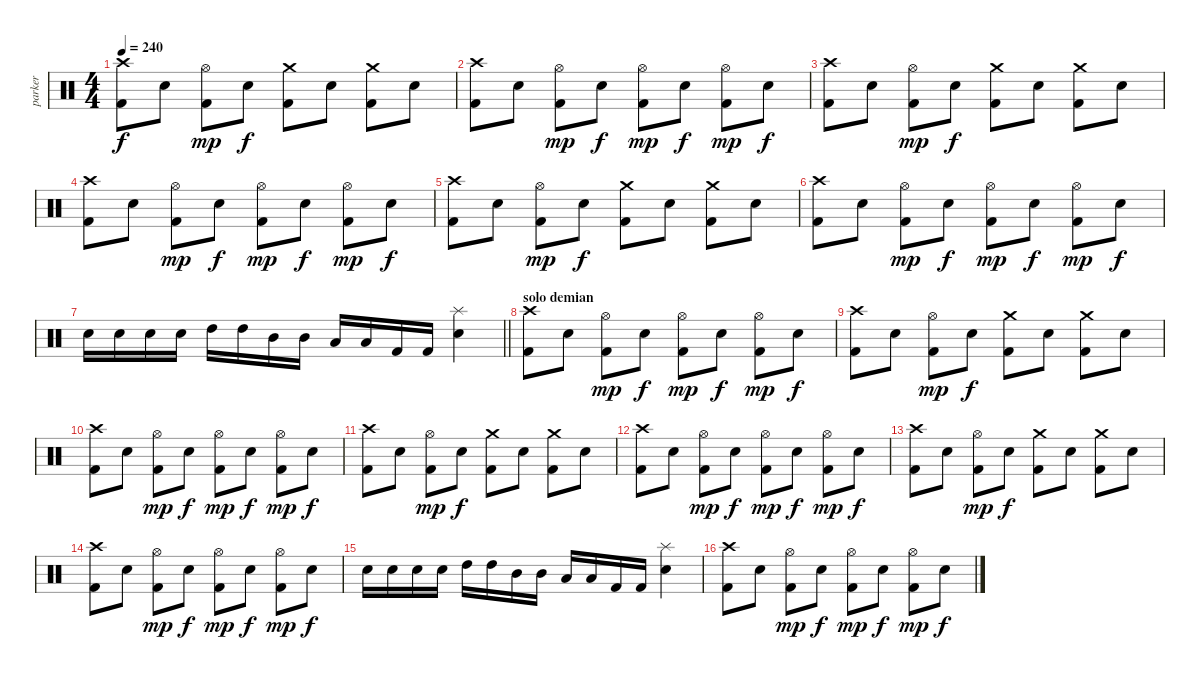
\track ("parker" "parker") {instrument percussion}
\staff {score}
\articulation defaults
\ts (4 4)
\tempo 240
\clef neutral
\ks c
("Crash high (hit)" "Kick (hit) 2").8{dy f} "Electric Snare (hit)".8 ("Hi-Hat (open)" "Kick (hit) 2").8{dy mp} "Electric Snare (hit)".8{dy f} ("Crash medium (hit)" "Kick (hit) 2").8 "Electric Snare (hit)".8 ("Crash medium (hit)" "Kick (hit) 2").8 "Electric Snare (hit)".8 |
("Crash high (hit)" "Kick (hit) 2").8 "Electric Snare (hit)".8 ("Hi-Hat (open)" "Kick (hit) 2").8{dy mp} "Electric Snare (hit)".8{dy f} ("Hi-Hat (open)" "Kick (hit) 2").8{dy mp} "Electric Snare (hit)".8{dy f} ("Hi-Hat (open)" "Kick (hit) 2").8{dy mp} "Electric Snare (hit)".8{dy f} |
("Crash high (hit)" "Kick (hit) 2").8 "Electric Snare (hit)".8 ("Hi-Hat (open)" "Kick (hit) 2").8{dy mp} "Electric Snare (hit)".8{dy f} ("Crash medium (hit)" "Kick (hit) 2").8 "Electric Snare (hit)".8 ("Crash medium (hit)" "Kick (hit) 2").8 "Electric Snare (hit)".8 |
("Crash high (hit)" "Kick (hit) 2").8 "Electric Snare (hit)".8 ("Hi-Hat (open)" "Kick (hit) 2").8{dy mp} "Electric Snare (hit)".8{dy f} ("Hi-Hat (open)" "Kick (hit) 2").8{dy mp} "Electric Snare (hit)".8{dy f} ("Hi-Hat (open)" "Kick (hit) 2").8{dy mp} "Electric Snare (hit)".8{dy f} |
("Crash high (hit)" "Kick (hit) 2").8 "Electric Snare (hit)".8 ("Hi-Hat (open)" "Kick (hit) 2").8{dy mp} "Electric Snare (hit)".8{dy f} ("Crash medium (hit)" "Kick (hit) 2").8 "Electric Snare (hit)".8 ("Crash medium (hit)" "Kick (hit) 2").8 "Electric Snare (hit)".8 |
("Crash high (hit)" "Kick (hit) 2").8 "Electric Snare (hit)".8 ("Hi-Hat (open)" "Kick (hit) 2").8{dy mp} "Electric Snare (hit)".8{dy f} ("Hi-Hat (open)" "Kick (hit) 2").8{dy mp} "Electric Snare (hit)".8{dy f} ("Hi-Hat (open)" "Kick (hit) 2").8{dy mp} "Electric Snare (hit)".8{dy f} |
\barLineRight lightlight "Electric Snare (hit)".16 "Electric Snare (hit)".16 "Electric Snare (hit)".16 "Electric Snare (hit)".16 "High Tom (hit)".16 "High Tom (hit)".16 "Mid Tom (hit)".16 "Mid Tom (hit)".16 "Low Tom (hit)".16 "Low Tom (hit)".16 "Kick (hit) 2".16 "Kick (hit) 2".16
("Splash (hit)" "Electric Snare (hit)").4 |
\section ("" "solo demian")
("Crash high (hit)" "Kick (hit) 2").8 "Electric Snare (hit)".8 ("Hi-Hat (open)" "Kick (hit) 2").8{dy mp} "Electric Snare (hit)".8{dy f} ("Hi-Hat (open)" "Kick (hit) 2").8{dy mp} "Electric Snare (hit)".8{dy f} ("Hi-Hat (open)" "Kick (hit) 2").8{dy mp} "Electric Snare (hit)".8{dy f} |
("Crash high (hit)" "Kick (hit) 2").8 "Electric Snare (hit)".8 ("Hi-Hat (open)" "Kick (hit) 2").8{dy mp} "Electric Snare (hit)".8{dy f} ("Crash medium (hit)" "Kick (hit) 2").8 "Electric Snare (hit)".8 ("Crash medium (hit)" "Kick (hit) 2").8 "Electric Snare (hit)".8 |
("Crash high (hit)" "Kick (hit) 2").8 "Electric Snare (hit)".8 ("Hi-Hat (open)" "Kick (hit) 2").8{dy mp} "Electric Snare (hit)".8{dy f} ("Hi-Hat (open)" "Kick (hit) 2").8{dy mp} "Electric Snare (hit)".8{dy f} ("Hi-Hat (open)" "Kick (hit) 2").8{dy mp} "Electric Snare (hit)".8{dy f} |
("Crash high (hit)" "Kick (hit) 2").8 "Electric Snare (hit)".8 ("Hi-Hat (open)" "Kick (hit) 2").8{dy mp} "Electric Snare (hit)".8{dy f} ("Crash medium (hit)" "Kick (hit) 2").8 "Electric Snare (hit)".8 ("Crash medium (hit)" "Kick (hit) 2").8 "Electric Snare (hit)".8 |
("Crash high (hit)" "Kick (hit) 2").8 "Electric Snare (hit)".8 ("Hi-Hat (open)" "Kick (hit) 2").8{dy mp} "Electric Snare (hit)".8{dy f} ("Hi-Hat (open)" "Kick (hit) 2").8{dy mp} "Electric Snare (hit)".8{dy f} ("Hi-Hat (open)" "Kick (hit) 2").8{dy mp} "Electric Snare (hit)".8{dy f} |
("Crash high (hit)" "Kick (hit) 2").8 "Electric Snare (hit)".8 ("Hi-Hat (open)" "Kick (hit) 2").8{dy mp} "Electric Snare (hit)".8{dy f} ("Crash medium (hit)" "Kick (hit) 2").8 "Electric Snare (hit)".8 ("Crash medium (hit)" "Kick (hit) 2").8 "Electric Snare (hit)".8 |
("Crash high (hit)" "Kick (hit) 2").8 "Electric Snare (hit)".8 ("Hi-Hat (open)" "Kick (hit) 2").8{dy mp} "Electric Snare (hit)".8{dy f} ("Hi-Hat (open)" "Kick (hit) 2").8{dy mp} "Electric Snare (hit)".8{dy f} ("Hi-Hat (open)" "Kick (hit) 2").8{dy mp} "Electric Snare (hit)".8{dy f} |
"Electric Snare (hit)".16 "Electric Snare (hit)".16 "Electric Snare (hit)".16 "Electric Snare (hit)".16 "High Tom (hit)".16 "High Tom (hit)".16 "Mid Tom (hit)".16 "Mid Tom (hit)".16 "Low Tom (hit)".16 "Low Tom (hit)".16 "Kick (hit) 2".16 "Kick (hit) 2".16 ("Splash (hit)" "Electric Snare (hit)").4 |
("Crash high (hit)" "Kick (hit) 2").8 "Electric Snare (hit)".8 ("Hi-Hat (open)" "Kick (hit) 2").8{dy mp} "Electric Snare (hit)".8{dy f} ("Hi-Hat (open)" "Kick (hit) 2").8{dy mp} "Electric Snare (hit)".8{dy f} ("Hi-Hat (open)" "Kick (hit) 2").8{dy mp} "Electric Snare (hit)".8{dy f}
